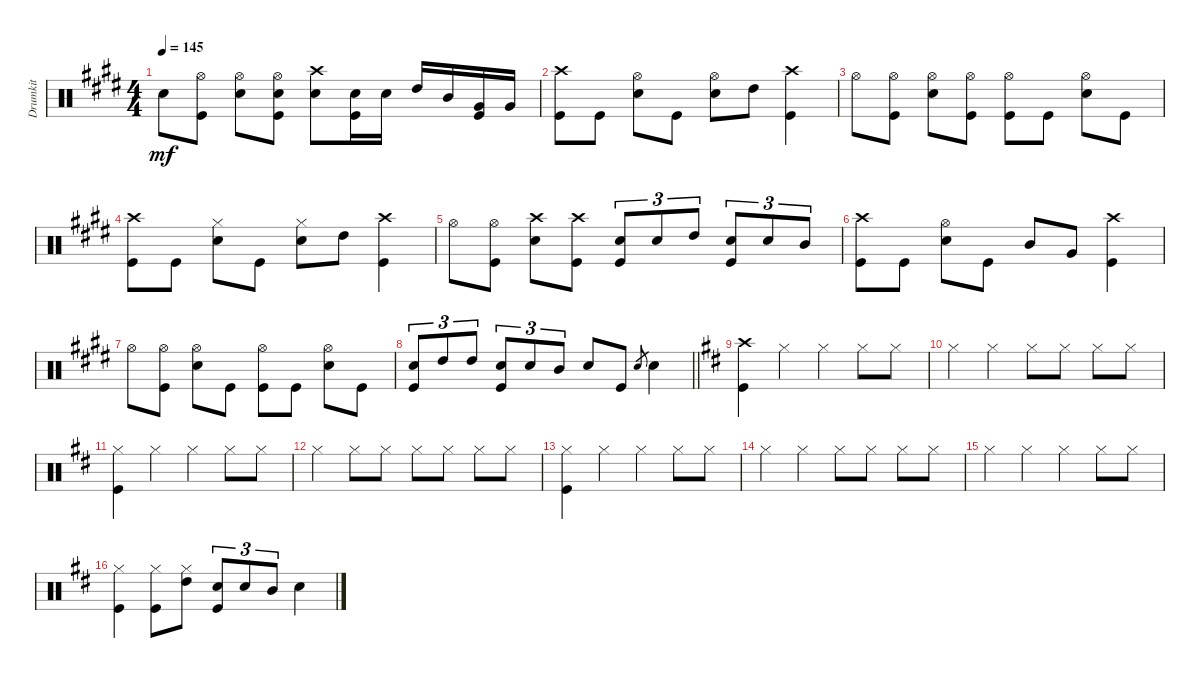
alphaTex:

\track ("Drumkit" "Drumkit") {instrument percussion}
\staff {score}
\articulation defaults
\ts (4 4)
\tempo 145
\clef neutral
\ks e "Snare (hit) 2".8{dy mf}
("Kick (hit)" "Hi-Hat (open)").8 ("Hi-Hat (open)" "Snare (hit) 2").8 ("Hi-Hat (open)" "Snare (hit) 2" "Kick (hit)").8 ("Snare (hit) 2" "Crash high (hit)").8 ("Snare (hit) 2" "Kick (hit)").16 "Snare (hit) 2".16 "High Tom (hit)".16 "Mid Tom (hit)".16 ("Very Low Tom (hit)" "Kick (hit)").16 "Very Low Tom (hit)".16 |
("Kick (hit)" "Crash high (hit)").8 "Kick (hit)".8 ("Snare (hit) 2" "Hi-Hat (open)").8 "Kick (hit)".8 ("Snare (hit) 2" "Hi-Hat (open)").8 "High Tom (hit)".8 ("Kick (hit)" "Crash high (hit)").4 |
"Hi-Hat (open)".8 ("Hi-Hat (open)" "Kick (hit)").8 ("Hi-Hat (open)" "Snare (hit) 2").8 ("Hi-Hat (open)" "Kick (hit)").8 ("Kick (hit)" "Hi-Hat (open)").8 "Kick (hit)".8 ("Snare (hit) 2" "Hi-Hat (open)").8 "Kick (hit)".8 |
("Kick (hit)" "Crash high (hit)").8 "Kick (hit)".8 ("Snare (hit) 2" "Hi-Hat (closed)").8 "Kick (hit)".8 ("Snare (hit) 2" "Hi-Hat (closed)").8 "High Tom (hit)".8 ("Kick (hit)" "Crash high (hit)").4 |
"Hi-Hat (open)".8 ("Hi-Hat (open)" "Kick (hit)").8 ("Snare (hit) 2" "Crash high (hit)").8 ("Kick (hit)" "Crash high (hit)").8 ("Snare (hit) 2" "Kick (hit)").8{tu (3 2)} "Snare (hit) 2".8{tu (3 2)} "High Tom (hit)".8{tu (3 2)} ("Snare (hit) 2" "Kick (hit)").8{tu (3 2)} "Snare (hit) 2".8{tu (3 2)} "Mid Tom (hit)".8{tu (3 2)} |
("Kick (hit)" "Crash high (hit)").8 "Kick (hit)".8 ("Snare (hit) 2" "Hi-Hat (open)").8 "Kick (hit)".8 "Mid Tom (hit)".8 "Very Low Tom (hit)".8 ("Kick (hit)" "Crash high (hit)").4 |
"Hi-Hat (open)".8 ("Hi-Hat (open)" "Kick (hit)").8 ("Hi-Hat (open)" "Snare (hit) 2").8 "Kick (hit)".8 ("Kick (hit)" "Hi-Hat (open)").8 "Kick (hit)".8 ("Snare (hit) 2" "Hi-Hat (open)").8 "Kick (hit)".8 |
\barLineRight lightlight
("Snare (hit) 2" "Kick (hit)").8{tu (3 2)} "High Tom (hit)".8{tu (3 2)} "High Tom (hit)".8{tu (3 2)} ("Snare (hit) 2" "Kick (hit)").8{tu (3 2)} "Snare (hit) 2".8{tu (3 2)} "Mid Tom (hit)".8{tu (3 2)} "Snare (hit) 2".8 "Kick (hit)".8 "Snare (hit)".8{gr} "Snare (hit) 2".4 |
\ks d
("Kick (hit)" "Crash high (hit)").4 "Hi-Hat (closed)".4 "Hi-Hat (closed)".4 "Hi-Hat (closed)".8 "Hi-Hat (closed)".8 |
"Hi-Hat (closed)".4 "Hi-Hat (closed)".4 "Hi-Hat (closed)".8 "Hi-Hat (closed)".8 "Hi-Hat (closed)".8 "Hi-Hat (closed)".8 |
("Hi-Hat (closed)" "Kick (hit)").4 "Hi-Hat (closed)".4 "Hi-Hat (closed)".4 "Hi-Hat (closed)".8 "Hi-Hat (closed)".8 |
"Hi-Hat (closed)".4 "Hi-Hat (closed)".8 "Hi-Hat (closed)".8 "Hi-Hat (closed)".8 "Hi-Hat (closed)".8 "Hi-Hat (closed)".8 "Hi-Hat (closed)".8 |
("Kick (hit)" "Hi-Hat (closed)").4 "Hi-Hat (closed)".4 "Hi-Hat (closed)".4 "Hi-Hat (closed)".8 "Hi-Hat (closed)".8 |
"Hi-Hat (closed)".4 "Hi-Hat (closed)".4 "Hi-Hat (closed)".8 "Hi-Hat (closed)".8 "Hi-Hat (closed)".8 "Hi-Hat (closed)".8 |
"Hi-Hat (closed)".4 "Hi-Hat (closed)".4 "Hi-Hat (closed)".4 "Hi-Hat (closed)".8 "Hi-Hat (closed)".8 |
("Hi-Hat (closed)" "Kick (hit)").4 ("Hi-Hat (closed)" "Kick (hit)").8 ("Hi-Hat (closed)" "High Tom (hit)").8 ("Snare (hit) 2" "Kick (hit)").8{tu (3 2)} "Snare (hit) 2".8{tu (3 2)} "Mid Tom (hit)".8{tu (3 2)} "Snare (hit) 2".4
